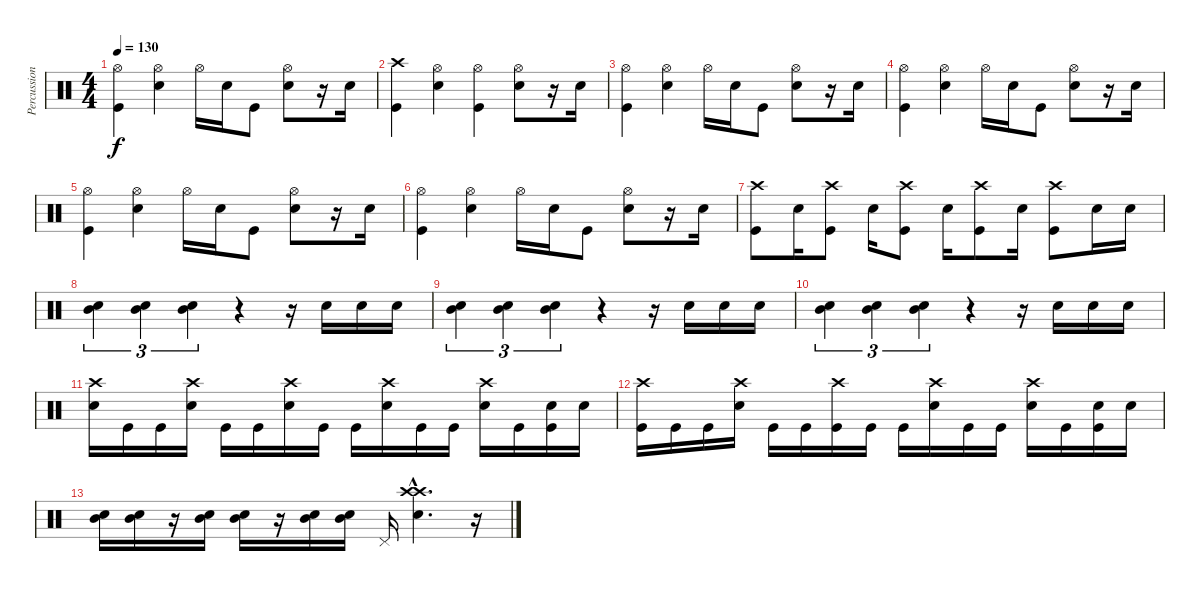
\track ("Percussion" "Percussion") {instrument percussion}
\staff {score}
\articulation defaults
\ts (4 4)
\tempo 130
\clef neutral
\ks c
("Hi-Hat (open)" "Kick (hit)").4{dy f} ("Hi-Hat (open)" "Snare (hit) 2").4 "Hi-Hat (open)".16 "Snare (hit) 2".16 "Kick (hit)".8 ("Hi-Hat (open)" "Snare (hit) 2").8 r.16 "Snare (hit) 2".16 |
("Crash high (hit)" "Kick (hit)").4 ("Hi-Hat (open)" "Snare (hit) 2").4 ("Hi-Hat (open)" "Kick (hit)").4 ("Hi-Hat (open)" "Snare (hit) 2").8 r.16 "Snare (hit) 2".16 |
("Hi-Hat (open)" "Kick (hit)").4 ("Hi-Hat (open)" "Snare (hit) 2").4 "Hi-Hat (open)".16 "Snare (hit) 2".16 "Kick (hit)".8 ("Hi-Hat (open)" "Snare (hit) 2").8 r.16 "Snare (hit) 2".16 |
("Hi-Hat (open)" "Kick (hit)").4 ("Hi-Hat (open)" "Snare (hit) 2").4 "Hi-Hat (open)".16 "Snare (hit) 2".16 "Kick (hit)".8 ("Hi-Hat (open)" "Snare (hit) 2").8 r.16 "Snare (hit) 2".16 |
("Hi-Hat (open)" "Kick (hit)").4 ("Hi-Hat (open)" "Snare (hit) 2").4 "Hi-Hat (open)".16 "Snare (hit) 2".16 "Kick (hit)".8 ("Hi-Hat (open)" "Snare (hit) 2").8 r.16 "Snare (hit) 2".16 |
("Hi-Hat (open)" "Kick (hit)").4 ("Hi-Hat (open)" "Snare (hit) 2").4 "Hi-Hat (open)".16 "Snare (hit) 2".16 "Kick (hit)".8 ("Hi-Hat (open)" "Snare (hit) 2").8 r.16 "Snare (hit) 2".16 |
("Crash high (hit)" "Kick (hit)").8 "Snare (hit) 2".16 ("Crash high (hit)" "Kick (hit)").8 "Snare (hit) 2".16 ("Crash high (hit)" "Kick (hit)").8 "Snare (hit) 2".16 ("Crash high (hit)" "Kick (hit)").8 "Snare (hit) 2".16 ("Crash high (hit)" "Kick (hit)").8 "Snare (hit) 2".16 "Snare (hit) 2".16 |
("Snare (hit) 2" "Mid Tom (hit)").4{tu (3 2)} ("Snare (hit) 2" "Mid Tom (hit)").4{tu (3 2)} ("Snare (hit) 2" "Mid Tom (hit)").4{tu (3 2)} r.4 r.16 "Snare (hit) 2".16 "Snare (hit) 2".16 "Snare (hit) 2".16 |
("Snare (hit) 2" "Mid Tom (hit)").4{tu (3 2)} ("Snare (hit) 2" "Mid Tom (hit)").4{tu (3 2)} ("Snare (hit) 2" "Mid Tom (hit)").4{tu (3 2)} r.4 r.16 "Snare (hit) 2".16 "Snare (hit) 2".16 "Snare (hit) 2".16 |
("Snare (hit) 2" "Mid Tom (hit)").4{tu (3 2)} ("Snare (hit) 2" "Mid Tom (hit)").4{tu (3 2)} ("Snare (hit) 2" "Mid Tom (hit)").4{tu (3 2)} r.4 r.16 "Snare (hit) 2".16 "Snare (hit) 2".16 "Snare (hit) 2".16 |
("Snare (hit) 2" "Crash high (hit)").16 "Kick (hit)".16 "Kick (hit)".16 ("Snare (hit) 2" "Crash high (hit)").16 "Kick (hit)".16 "Kick (hit)".16 ("Snare (hit) 2" "Crash high (hit)").16 "Kick (hit)".16 "Kick (hit)".16 ("Snare (hit) 2" "Crash high (hit)").16 "Kick (hit)".16 "Kick (hit)".16 ("Snare (hit) 2" "Crash high (hit)").16 "Kick (hit)".16 ("Snare (hit) 2" "Kick (hit)").16 "Snare (hit) 2".16 |
("Kick (hit)" "Crash high (hit)").16 "Kick (hit)".16 "Kick (hit)".16 ("Snare (hit) 2" "Crash high (hit)").16 "Kick (hit)".16 "Kick (hit)".16 ("Kick (hit)" "Crash high (hit)").16 "Kick (hit)".16 "Kick (hit)".16 ("Snare (hit) 2" "Crash high (hit)").16 "Kick (hit)".16 "Kick (hit)".16 ("Snare (hit) 2" "Crash high (hit)").16 "Kick (hit)".16 ("Snare (hit) 2" "Kick (hit)").16 "Snare (hit) 2".16 |
("Mid Tom (hit)" "Snare (hit) 2").16 ("Mid Tom (hit)" "Snare (hit) 2").16 r.16 ("Mid Tom (hit)" "Snare (hit) 2").16 ("Mid Tom (hit)" "Snare (hit) 2").16 r.16 ("Mid Tom (hit)" "Snare (hit) 2").16 ("Mid Tom (hit)" "Snare (hit) 2").16 "Pedal Hi-Hat (hit)".16 ("Crash high (hit)"{hac} "Snare (hit) 2"{hac} "Crash high (hit)"{hac}).4{d} r.16
